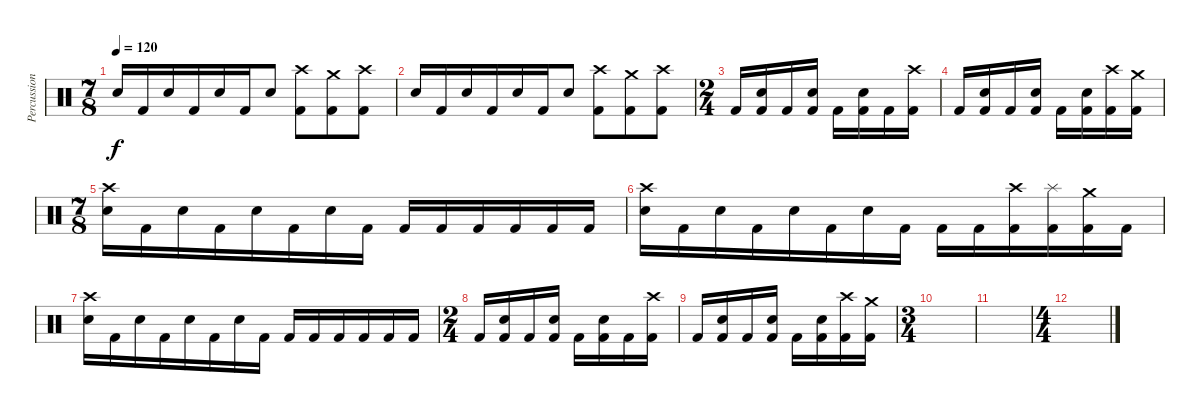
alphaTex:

\track ("Percussion" "Percussion") {instrument percussion}
\staff {score}
\articulation defaults
\ts (7 8)
\tempo 120
\clef neutral
\ks c "Snare (hit) 2".16{dy f} "Kick (hit) 2".16 "Snare (hit) 2".16 "Kick (hit) 2".16 "Snare (hit) 2".16 "Kick (hit) 2".16 "Snare (hit) 2".8
("Crash high (hit)" "Kick (hit) 2").8 ("Crash medium (hit)" "Kick (hit) 2").8 ("Crash high (hit)" "Kick (hit) 2").8 |
"Snare (hit) 2".16 "Kick (hit) 2".16 "Snare (hit) 2".16 "Kick (hit) 2".16 "Snare (hit) 2".16 "Kick (hit) 2".16 "Snare (hit) 2".8 ("Crash high (hit)" "Kick (hit) 2").8 ("Crash medium (hit)" "Kick (hit) 2").8 ("Crash high (hit)" "Kick (hit) 2").8 |
\ts (2 4)
"Kick (hit) 2".16 ("Snare (hit) 2" "Kick (hit) 2").16 "Kick (hit) 2".16 ("Snare (hit) 2" "Kick (hit) 2").16 "Kick (hit) 2".16 ("Snare (hit) 2" "Kick (hit) 2").16 "Kick (hit) 2".16 ("Crash high (hit)" "Kick (hit) 2").16 |
"Kick (hit) 2".16 ("Snare (hit) 2" "Kick (hit) 2").16 "Kick (hit) 2".16 ("Snare (hit) 2" "Kick (hit) 2").16 "Kick (hit) 2".16 ("Snare (hit) 2" "Kick (hit) 2").16 ("Crash high (hit)" "Kick (hit) 2").16 ("Crash medium (hit)" "Kick (hit) 2").16 |
\ts (7 8)
("Crash high (hit)" "Snare (hit) 2").16 "Kick (hit) 2".16 "Snare (hit) 2".16 "Kick (hit) 2".16 "Snare (hit) 2".16 "Kick (hit) 2".16 "Snare (hit) 2".16 "Kick (hit) 2".16 "Kick (hit) 2".16 "Kick (hit) 2".16 "Kick (hit) 2".16 "Kick (hit) 2".16 "Kick (hit) 2".16 "Kick (hit) 2".16 |
("Crash high (hit)" "Snare (hit) 2").16 "Kick (hit) 2".16 "Snare (hit) 2".16 "Kick (hit) 2".16 "Snare (hit) 2".16 "Kick (hit) 2".16 "Snare (hit) 2".16 "Kick (hit) 2".16 "Kick (hit) 2".16 "Kick (hit) 2".16 ("Crash high (hit)" "Kick (hit) 2").16 ("Splash (hit)" "Kick (hit) 2").16 ("Crash medium (hit)" "Kick (hit) 2").16 "Kick (hit) 2".16 |
("Crash high (hit)" "Snare (hit) 2").16 "Kick (hit) 2".16 "Snare (hit) 2".16 "Kick (hit) 2".16 "Snare (hit) 2".16 "Kick (hit) 2".16 "Snare (hit) 2".16 "Kick (hit) 2".16 "Kick (hit) 2".16 "Kick (hit) 2".16 "Kick (hit) 2".16 "Kick (hit) 2".16 "Kick (hit) 2".16 "Kick (hit) 2".16 |
\ts (2 4)
"Kick (hit) 2".16 ("Snare (hit) 2" "Kick (hit) 2").16 "Kick (hit) 2".16 ("Snare (hit) 2" "Kick (hit) 2").16 "Kick (hit) 2".16 ("Snare (hit) 2" "Kick (hit) 2").16 "Kick (hit) 2".16 ("Crash high (hit)" "Kick (hit) 2").16 |
"Kick (hit) 2".16 ("Snare (hit) 2" "Kick (hit) 2").16 "Kick (hit) 2".16 ("Snare (hit) 2" "Kick (hit) 2").16 "Kick (hit) 2".16 ("Snare (hit) 2" "Kick (hit) 2").16 ("Crash high (hit)" "Kick (hit) 2").16 ("Crash medium (hit)" "Kick (hit) 2").16 |
\ts (3 4)
|
|
\ts (4 4)
